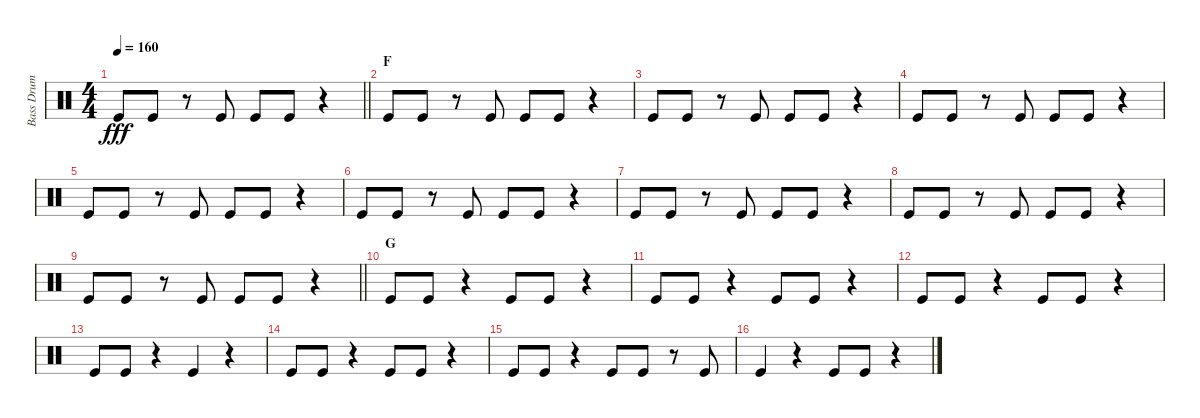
\track ("Bass Drum" "Bass Drum") {instrument percussion}
\staff {score}
\articulation defaults
\ts (4 4)
\tempo 160
\clef neutral
\barLineRight lightlight
\ks c "Kick (hit)".8{dy fff} "Kick (hit)".8
r.8 "Kick (hit)".8 "Kick (hit)".8 "Kick (hit)".8 r.4 |
\section ("" "F")
"Kick (hit)".8 "Kick (hit)".8 r.8 "Kick (hit)".8 "Kick (hit)".8 "Kick (hit)".8 r.4 |
"Kick (hit)".8 "Kick (hit)".8 r.8 "Kick (hit)".8 "Kick (hit)".8 "Kick (hit)".8 r.4 |
"Kick (hit)".8 "Kick (hit)".8 r.8 "Kick (hit)".8 "Kick (hit)".8 "Kick (hit)".8 r.4 |
"Kick (hit)".8 "Kick (hit)".8 r.8 "Kick (hit)".8 "Kick (hit)".8 "Kick (hit)".8 r.4 |
"Kick (hit)".8 "Kick (hit)".8 r.8 "Kick (hit)".8 "Kick (hit)".8 "Kick (hit)".8 r.4 |
"Kick (hit)".8 "Kick (hit)".8 r.8 "Kick (hit)".8 "Kick (hit)".8 "Kick (hit)".8 r.4 |
"Kick (hit)".8 "Kick (hit)".8 r.8 "Kick (hit)".8 "Kick (hit)".8 "Kick (hit)".8 r.4 |
\barLineRight lightlight "Kick (hit)".8 "Kick (hit)".8
r.8 "Kick (hit)".8 "Kick (hit)".8 "Kick (hit)".8 r.4 |
\section ("" "G")
"Kick (hit)".8 "Kick (hit)".8 r.4 "Kick (hit)".8 "Kick (hit)".8 r.4 |
"Kick (hit)".8 "Kick (hit)".8 r.4 "Kick (hit)".8 "Kick (hit)".8 r.4 |
"Kick (hit)".8 "Kick (hit)".8 r.4 "Kick (hit)".8 "Kick (hit)".8 r.4 |
"Kick (hit)".8 "Kick (hit)".8 r.4 "Kick (hit)".4 r.4 |
"Kick (hit)".8 "Kick (hit)".8 r.4 "Kick (hit)".8 "Kick (hit)".8 r.4 |
"Kick (hit)".8 "Kick (hit)".8 r.4 "Kick (hit)".8 "Kick (hit)".8 r.8 "Kick (hit)".8 |
"Kick (hit)".4 r.4 "Kick (hit)".8 "Kick (hit)".8 r.4
